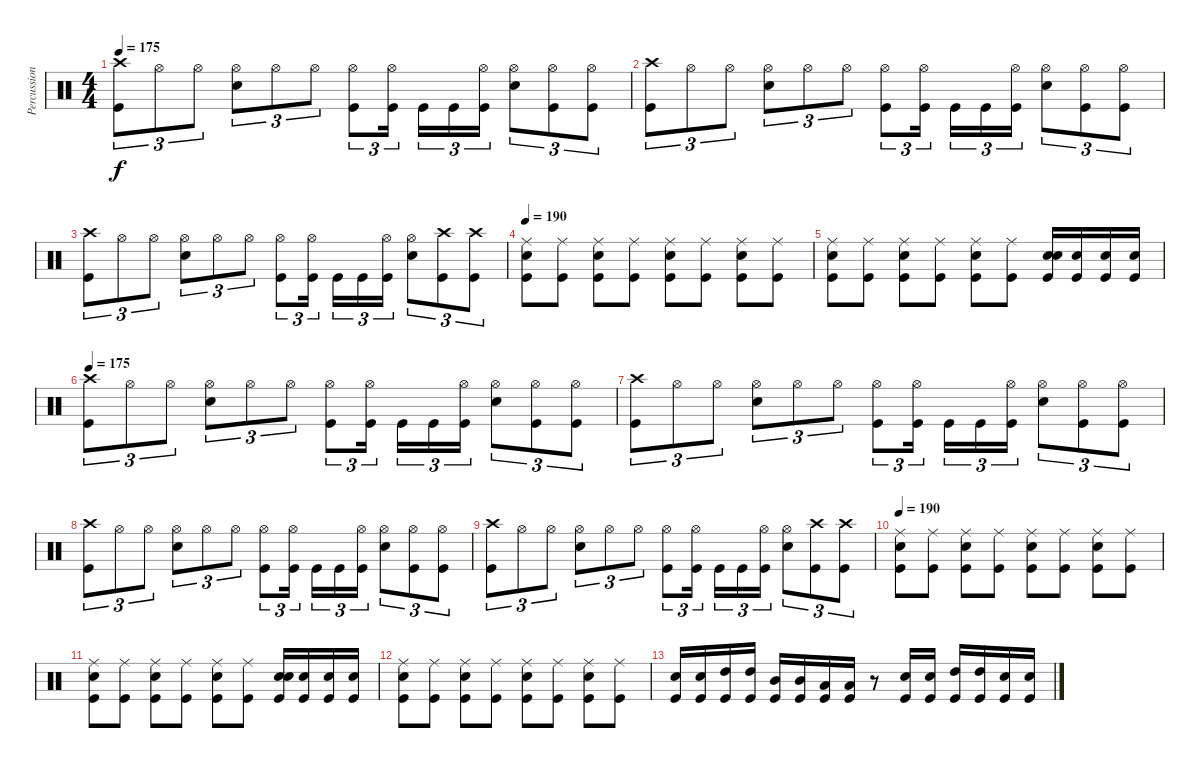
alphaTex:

\track ("Percussioni" "Percussion") {instrument percussion}
\staff {score}
\articulation defaults
\ts (4 4)
\tempo 175
\clef neutral
\ks c
("Crash high (hit)" "Kick (hit)").8{tu (3 2) dy f} "Hi-Hat (open)".8{tu (3 2)} "Hi-Hat (open)".8{tu (3 2)} ("Hi-Hat (open)" "Electric Snare (hit)").8{tu (3 2)} "Hi-Hat (open)".8{tu (3 2)} "Hi-Hat (open)".8{tu (3 2)} ("Hi-Hat (open)" "Kick (hit)").8{tu (3 2)} ("Hi-Hat (open)" "Kick (hit)").16{tu (3 2)} "Kick (hit)".16{tu (3 2)} "Kick (hit)".16{tu (3 2)} ("Hi-Hat (open)" "Kick (hit)").16{tu (3 2)} ("Hi-Hat (open)" "Electric Snare (hit)").8{tu (3 2)} ("Hi-Hat (open)" "Kick (hit)").8{tu (3 2)} ("Hi-Hat (open)" "Kick (hit)").8{tu (3 2)} |
("Crash high (hit)" "Kick (hit)").8{tu (3 2)} "Hi-Hat (open)".8{tu (3 2)} "Hi-Hat (open)".8{tu (3 2)} ("Hi-Hat (open)" "Electric Snare (hit)").8{tu (3 2)} "Hi-Hat (open)".8{tu (3 2)} "Hi-Hat (open)".8{tu (3 2)} ("Hi-Hat (open)" "Kick (hit)").8{tu (3 2)} ("Hi-Hat (open)" "Kick (hit)").16{tu (3 2)} "Kick (hit)".16{tu (3 2)} "Kick (hit)".16{tu (3 2)} ("Hi-Hat (open)" "Kick (hit)").16{tu (3 2)} ("Hi-Hat (open)" "Electric Snare (hit)").8{tu (3 2)} ("Hi-Hat (open)" "Kick (hit)").8{tu (3 2)} ("Hi-Hat (open)" "Kick (hit)").8{tu (3 2)} |
("Crash high (hit)" "Kick (hit)").8{tu (3 2)} "Hi-Hat (open)".8{tu (3 2)} "Hi-Hat (open)".8{tu (3 2)} ("Hi-Hat (open)" "Electric Snare (hit)").8{tu (3 2)} "Hi-Hat (open)".8{tu (3 2)} "Hi-Hat (open)".8{tu (3 2)} ("Hi-Hat (open)" "Kick (hit)").8{tu (3 2)} ("Hi-Hat (open)" "Kick (hit)").16{tu (3 2)} "Kick (hit)".16{tu (3 2)} "Kick (hit)".16{tu (3 2)} ("Hi-Hat (open)" "Kick (hit)").16{tu (3 2)} ("Hi-Hat (open)" "Electric Snare (hit)").8{tu (3 2)} ("Crash high (hit)" "Kick (hit)").8{tu (3 2)} ("Crash high (hit)" "Kick (hit)").8{tu (3 2)} |
\tempo 190
("Ride (middle)" "Electric Snare (hit)" "Kick (hit)").8 ("Ride (middle)" "Kick (hit)").8 ("Ride (middle)" "Electric Snare (hit)" "Kick (hit)").8 ("Ride (middle)" "Kick (hit)").8 ("Ride (middle)" "Electric Snare (hit)" "Kick (hit)").8 ("Ride (middle)" "Kick (hit)").8 ("Ride (middle)" "Electric Snare (hit)" "Kick (hit)").8 ("Ride (middle)" "Kick (hit)").8 |
("Ride (middle)" "Electric Snare (hit)" "Kick (hit)").8 ("Ride (middle)" "Kick (hit)").8 ("Ride (middle)" "Electric Snare (hit)" "Kick (hit)").8 ("Ride (middle)" "Kick (hit)").8 ("Ride (middle)" "Electric Snare (hit)" "Kick (hit)").8 ("Ride (middle)" "Kick (hit)").8 ("Electric Snare (hit)" "Electric Snare (hit)" "Kick (hit)").16 ("Electric Snare (hit)" "Kick (hit)").16 ("Snare (hit) 2" "Kick (hit)").16 ("Snare (hit) 2" "Kick (hit)").16 |
\tempo 175
("Crash high (hit)" "Kick (hit)").8{tu (3 2)} "Hi-Hat (open)".8{tu (3 2)} "Hi-Hat (open)".8{tu (3 2)} ("Hi-Hat (open)" "Electric Snare (hit)").8{tu (3 2)} "Hi-Hat (open)".8{tu (3 2)} "Hi-Hat (open)".8{tu (3 2)} ("Hi-Hat (open)" "Kick (hit)").8{tu (3 2)} ("Hi-Hat (open)" "Kick (hit)").16{tu (3 2)} "Kick (hit)".16{tu (3 2)} "Kick (hit)".16{tu (3 2)} ("Hi-Hat (open)" "Kick (hit)").16{tu (3 2)} ("Hi-Hat (open)" "Electric Snare (hit)").8{tu (3 2)} ("Hi-Hat (open)" "Kick (hit)").8{tu (3 2)} ("Hi-Hat (open)" "Kick (hit)").8{tu (3 2)} |
("Crash high (hit)" "Kick (hit)").8{tu (3 2)} "Hi-Hat (open)".8{tu (3 2)} "Hi-Hat (open)".8{tu (3 2)} ("Hi-Hat (open)" "Electric Snare (hit)").8{tu (3 2)} "Hi-Hat (open)".8{tu (3 2)} "Hi-Hat (open)".8{tu (3 2)} ("Hi-Hat (open)" "Kick (hit)").8{tu (3 2)} ("Hi-Hat (open)" "Kick (hit)").16{tu (3 2)} "Kick (hit)".16{tu (3 2)} "Kick (hit)".16{tu (3 2)} ("Hi-Hat (open)" "Kick (hit)").16{tu (3 2)} ("Hi-Hat (open)" "Electric Snare (hit)").8{tu (3 2)} ("Hi-Hat (open)" "Kick (hit)").8{tu (3 2)} ("Hi-Hat (open)" "Kick (hit)").8{tu (3 2)} |
("Crash high (hit)" "Kick (hit)").8{tu (3 2)} "Hi-Hat (open)".8{tu (3 2)} "Hi-Hat (open)".8{tu (3 2)} ("Hi-Hat (open)" "Electric Snare (hit)").8{tu (3 2)} "Hi-Hat (open)".8{tu (3 2)} "Hi-Hat (open)".8{tu (3 2)} ("Hi-Hat (open)" "Kick (hit)").8{tu (3 2)} ("Hi-Hat (open)" "Kick (hit)").16{tu (3 2)} "Kick (hit)".16{tu (3 2)} "Kick (hit)".16{tu (3 2)} ("Hi-Hat (open)" "Kick (hit)").16{tu (3 2)} ("Hi-Hat (open)" "Electric Snare (hit)").8{tu (3 2)} ("Hi-Hat (open)" "Kick (hit)").8{tu (3 2)} ("Hi-Hat (open)" "Kick (hit)").8{tu (3 2)} |
("Crash high (hit)" "Kick (hit)").8{tu (3 2)} "Hi-Hat (open)".8{tu (3 2)} "Hi-Hat (open)".8{tu (3 2)} ("Hi-Hat (open)" "Electric Snare (hit)").8{tu (3 2)} "Hi-Hat (open)".8{tu (3 2)} "Hi-Hat (open)".8{tu (3 2)} ("Hi-Hat (open)" "Kick (hit)").8{tu (3 2)} ("Hi-Hat (open)" "Kick (hit)").16{tu (3 2)} "Kick (hit)".16{tu (3 2)} "Kick (hit)".16{tu (3 2)} ("Hi-Hat (open)" "Kick (hit)").16{tu (3 2)} ("Hi-Hat (open)" "Electric Snare (hit)").8{tu (3 2)} ("Crash high (hit)" "Kick (hit)").8{tu (3 2)} ("Crash high (hit)" "Kick (hit)").8{tu (3 2)} |
\tempo 190
("Ride (middle)" "Electric Snare (hit)" "Kick (hit)").8 ("Ride (middle)" "Kick (hit)").8 ("Ride (middle)" "Electric Snare (hit)" "Kick (hit)").8 ("Ride (middle)" "Kick (hit)").8 ("Ride (middle)" "Electric Snare (hit)" "Kick (hit)").8 ("Ride (middle)" "Kick (hit)").8 ("Ride (middle)" "Electric Snare (hit)" "Kick (hit)").8 ("Ride (middle)" "Kick (hit)").8 |
("Ride (middle)" "Electric Snare (hit)" "Kick (hit)").8 ("Ride (middle)" "Kick (hit)").8 ("Ride (middle)" "Electric Snare (hit)" "Kick (hit)").8 ("Ride (middle)" "Kick (hit)").8 ("Ride (middle)" "Electric Snare (hit)" "Kick (hit)").8 ("Ride (middle)" "Kick (hit)").8 ("Electric Snare (hit)" "Electric Snare (hit)" "Kick (hit)").16 ("Electric Snare (hit)" "Kick (hit)").16 ("Snare (hit) 2" "Kick (hit)").16 ("Snare (hit) 2" "Kick (hit)").16 |
("Ride (middle)" "Electric Snare (hit)" "Kick (hit)").8 ("Ride (middle)" "Kick (hit)").8 ("Ride (middle)" "Electric Snare (hit)" "Kick (hit)").8 ("Ride (middle)" "Kick (hit)").8 ("Ride (middle)" "Electric Snare (hit)" "Kick (hit)").8 ("Ride (middle)" "Kick (hit)").8 ("Ride (middle)" "Electric Snare (hit)" "Kick (hit)").8 ("Ride (middle)" "Kick (hit)").8 |
("Electric Snare (hit)" "Kick (hit)").16 ("Electric Snare (hit)" "Kick (hit)").16 ("High Tom (hit)" "Kick (hit)").16 ("High Tom (hit)" "Kick (hit)").16 ("Mid Tom (hit)" "Kick (hit)").16 ("Mid Tom (hit)" "Kick (hit)").16 ("Low Tom (hit)" "Kick (hit)").16 ("Low Tom (hit)" "Kick (hit)").16 r.8 ("Electric Snare (hit)" "Kick (hit)").16 ("Electric Snare (hit)" "Kick (hit)").16 ("High Tom (hit)" "Kick (hit)").16 ("High Tom (hit)" "Kick (hit)").16 ("Snare (hit) 2" "Kick (hit)").16 ("Snare (hit) 2" "Kick (hit)").16
